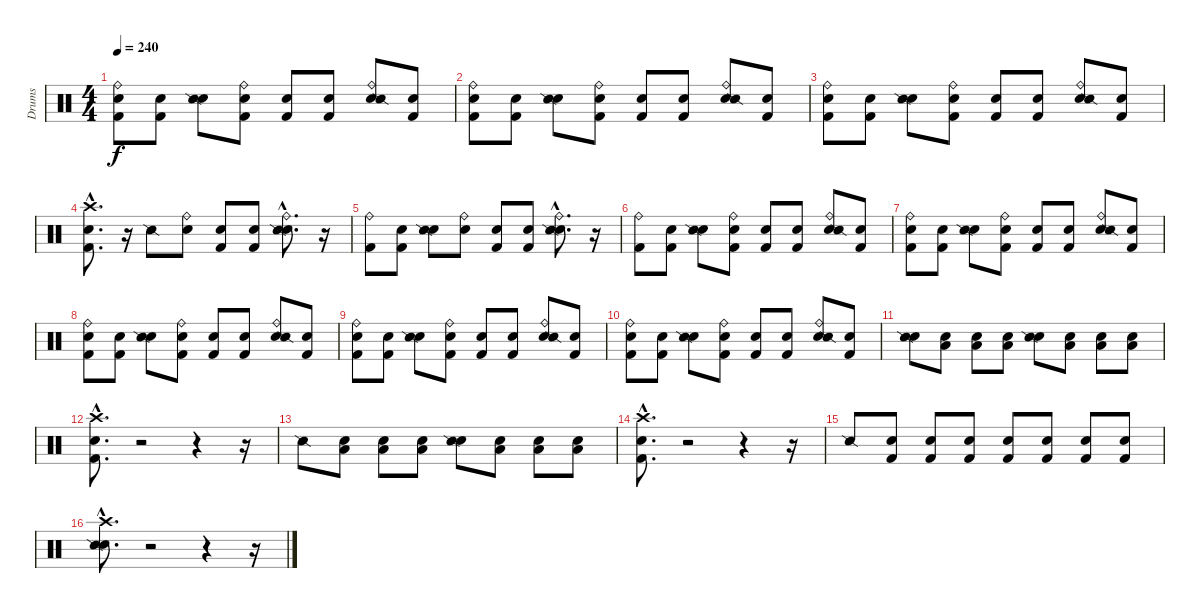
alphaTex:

\track ("Drums" "Drums") {instrument percussion}
\staff {score}
\articulation defaults
\ts (4 4)
\tempo 240
\clef neutral
\ks c
("Snare (hit)" "Kick (hit) 2" "Ride (bell)").8{dy f} ("Snare (hit)" "Kick (hit) 2").8 ("Snare (hit)" "Snare (side stick) 2").8 ("Snare (hit)" "Kick (hit) 2" "Ride (bell)").8 ("Snare (hit)" "Kick (hit) 2").8 ("Snare (hit)" "Kick (hit) 2").8 ("Snare (hit)" "Ride (bell)" "Snare (side stick) 2").8 ("Snare (hit)" "Kick (hit) 2").8 |
("Snare (hit)" "Kick (hit) 2" "Ride (bell)").8 ("Snare (hit)" "Kick (hit) 2").8 ("Snare (hit)" "Snare (side stick) 2").8 ("Snare (hit)" "Kick (hit) 2" "Ride (bell)").8 ("Snare (hit)" "Kick (hit) 2").8 ("Snare (hit)" "Kick (hit) 2").8 ("Snare (hit)" "Ride (bell)" "Snare (side stick) 2").8 ("Snare (hit)" "Kick (hit) 2").8 |
("Snare (hit)" "Kick (hit) 2" "Ride (bell)").8 ("Snare (hit)" "Kick (hit) 2").8 ("Snare (hit)" "Snare (side stick) 2").8 ("Snare (hit)" "Kick (hit) 2" "Ride (bell)").8 ("Snare (hit)" "Kick (hit) 2").8 ("Snare (hit)" "Kick (hit) 2").8 ("Snare (hit)" "Ride (bell)" "Snare (side stick) 2").8 ("Snare (hit)" "Kick (hit) 2").8 |
("Snare (hit)"{hac} "Kick (hit) 2"{hac} "Crash high (hit)"{hac}).8{d} r.16 "Snare (side stick) 2".8 ("Snare (hit)" "Ride (bell)").8 ("Snare (hit)" "Kick (hit) 2").8 ("Snare (hit)" "Kick (hit) 2").8 ("Snare (hit)"{hac} "Snare (side stick) 2"{hac} "Ride (bell)"{hac}).8{d} r.16 |
("Kick (hit) 2" "Ride (bell)").8 ("Snare (hit)" "Kick (hit) 2").8 ("Snare (hit)" "Snare (side stick) 2").8 ("Snare (hit)" "Ride (bell)").8 ("Snare (hit)" "Kick (hit) 2").8 ("Snare (hit)" "Kick (hit) 2").8 ("Snare (hit)"{hac} "Snare (side stick) 2"{hac} "Ride (bell)"{hac}).8{d} r.16 |
("Kick (hit) 2" "Ride (bell)").8 ("Snare (hit)" "Kick (hit) 2").8 ("Snare (hit)" "Snare (side stick) 2").8 ("Snare (hit)" "Kick (hit) 2" "Ride (bell)").8 ("Snare (hit)" "Kick (hit) 2").8 ("Snare (hit)" "Kick (hit) 2").8 ("Snare (hit)" "Ride (bell)" "Snare (side stick) 2").8 ("Snare (hit)" "Kick (hit) 2").8 |
("Snare (hit)" "Kick (hit) 2" "Ride (bell)").8 ("Snare (hit)" "Kick (hit) 2").8 ("Snare (hit)" "Snare (side stick) 2").8 ("Snare (hit)" "Kick (hit) 2" "Ride (bell)").8 ("Snare (hit)" "Kick (hit) 2").8 ("Snare (hit)" "Kick (hit) 2").8 ("Snare (hit)" "Ride (bell)" "Snare (side stick) 2").8 ("Snare (hit)" "Kick (hit) 2").8 |
("Snare (hit)" "Kick (hit) 2" "Ride (bell)").8 ("Snare (hit)" "Kick (hit) 2").8 ("Snare (hit)" "Snare (side stick) 2").8 ("Snare (hit)" "Kick (hit) 2" "Ride (bell)").8 ("Snare (hit)" "Kick (hit) 2").8 ("Snare (hit)" "Kick (hit) 2").8 ("Snare (hit)" "Ride (bell)" "Snare (side stick) 2").8 ("Snare (hit)" "Kick (hit) 2").8 |
("Snare (hit)" "Kick (hit) 2" "Ride (bell)").8 ("Snare (hit)" "Kick (hit) 2").8 ("Snare (hit)" "Snare (side stick) 2").8 ("Snare (hit)" "Kick (hit) 2" "Ride (bell)").8 ("Snare (hit)" "Kick (hit) 2").8 ("Snare (hit)" "Kick (hit) 2").8 ("Snare (hit)" "Ride (bell)" "Snare (side stick) 2").8 ("Snare (hit)" "Kick (hit) 2").8 |
("Snare (hit)" "Kick (hit) 2" "Ride (bell)").8 ("Snare (hit)" "Kick (hit) 2").8 ("Snare (hit)" "Snare (side stick) 2").8 ("Snare (hit)" "Kick (hit) 2" "Ride (bell)").8 ("Snare (hit)" "Kick (hit) 2").8 ("Snare (hit)" "Kick (hit) 2").8 ("Snare (hit)" "Ride (bell)" "Snare (side stick) 2").8 ("Snare (hit)" "Kick (hit) 2").8 |
("Snare (hit)" "Snare (side stick) 2").8 ("Snare (hit)" "Low Tom (hit)").8 ("Snare (hit)" "Low Tom (hit)").8 ("Snare (hit)" "Low Tom (hit)").8 ("Snare (hit)" "Snare (side stick) 2").8 ("Snare (hit)" "Low Tom (hit)").8 ("Snare (hit)" "Low Tom (hit)").8 ("Snare (hit)" "Low Tom (hit)").8 |
("Snare (hit)"{hac} "Kick (hit) 2"{hac} "Crash high (hit)"{hac}).8{d} r.2 r.4 r.16 |
"Snare (side stick) 2".8 ("Snare (hit)" "Low Tom (hit)").8 ("Snare (hit)" "Low Tom (hit)").8 ("Snare (hit)" "Low Tom (hit)").8 ("Snare (hit)" "Snare (side stick) 2").8 ("Snare (hit)" "Low Tom (hit)").8 ("Snare (hit)" "Low Tom (hit)").8 ("Snare (hit)" "Low Tom (hit)").8 |
("Snare (hit)"{hac} "Kick (hit) 2"{hac} "Crash high (hit)"{hac}).8{d} r.2 r.4 r.16 |
"Snare (side stick) 2".8 ("Snare (hit)" "Kick (hit) 2").8 ("Snare (hit)" "Kick (hit) 2").8 ("Snare (hit)" "Kick (hit) 2").8 ("Snare (hit)" "Kick (hit) 2").8 ("Snare (hit)" "Kick (hit) 2").8 ("Snare (hit)" "Kick (hit) 2").8 ("Snare (hit)" "Kick (hit) 2").8 |
("Snare (hit)"{hac} "Snare (side stick) 2"{hac} "Crash high (hit)"{hac}).8{d} r.2 r.4 r.16
